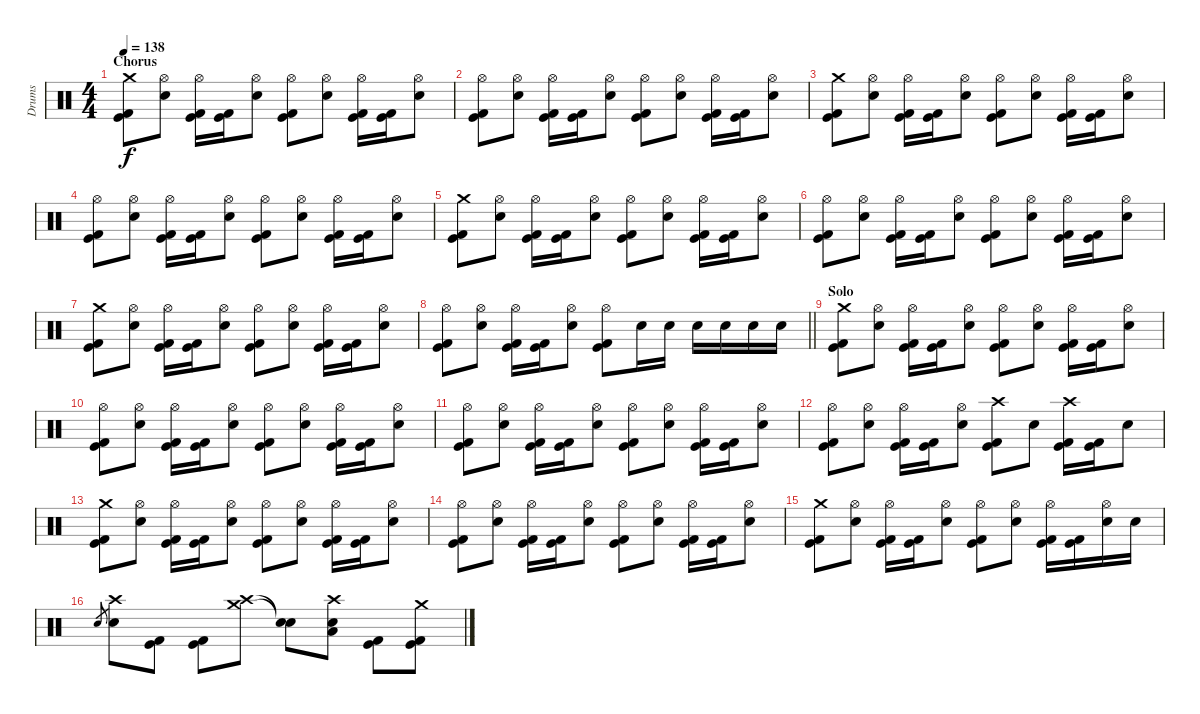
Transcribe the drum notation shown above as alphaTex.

\track ("Drums" "Drums") {instrument percussion}
\staff {score}
\articulation defaults
\ts (4 4)
\section ("" "Chorus")
\tempo 138
\clef neutral
\ks c
("Crash medium (hit)" "Kick (hit)" "Kick (hit) 2").8{dy f} ("Hi-Hat (open)" "Electric Snare (hit)").8 ("Hi-Hat (open)" "Kick (hit)" "Kick (hit) 2").16 ("Kick (hit)" "Kick (hit) 2").16 ("Hi-Hat (open)" "Electric Snare (hit)").8 ("Hi-Hat (open)" "Kick (hit)" "Kick (hit) 2").8 ("Hi-Hat (open)" "Electric Snare (hit)").8 ("Hi-Hat (open)" "Kick (hit)" "Kick (hit) 2").16 ("Kick (hit)" "Kick (hit) 2").16 ("Hi-Hat (open)" "Electric Snare (hit)").8 |
("Hi-Hat (open)" "Kick (hit)" "Kick (hit) 2").8 ("Hi-Hat (open)" "Electric Snare (hit)").8 ("Hi-Hat (open)" "Kick (hit)" "Kick (hit) 2").16 ("Kick (hit)" "Kick (hit) 2").16 ("Hi-Hat (open)" "Electric Snare (hit)").8 ("Hi-Hat (open)" "Kick (hit)" "Kick (hit) 2").8 ("Hi-Hat (open)" "Electric Snare (hit)").8 ("Hi-Hat (open)" "Kick (hit)" "Kick (hit) 2").16 ("Kick (hit)" "Kick (hit) 2").16 ("Hi-Hat (open)" "Electric Snare (hit)").8 |
("Crash medium (hit)" "Kick (hit)" "Kick (hit) 2").8 ("Hi-Hat (open)" "Electric Snare (hit)").8 ("Hi-Hat (open)" "Kick (hit)" "Kick (hit) 2").16 ("Kick (hit)" "Kick (hit) 2").16 ("Hi-Hat (open)" "Electric Snare (hit)").8 ("Hi-Hat (open)" "Kick (hit)" "Kick (hit) 2").8 ("Hi-Hat (open)" "Electric Snare (hit)").8 ("Hi-Hat (open)" "Kick (hit)" "Kick (hit) 2").16 ("Kick (hit)" "Kick (hit) 2").16 ("Hi-Hat (open)" "Electric Snare (hit)").8 |
("Hi-Hat (open)" "Kick (hit)" "Kick (hit) 2").8 ("Hi-Hat (open)" "Electric Snare (hit)").8 ("Hi-Hat (open)" "Kick (hit)" "Kick (hit) 2").16 ("Kick (hit)" "Kick (hit) 2").16 ("Hi-Hat (open)" "Electric Snare (hit)").8 ("Hi-Hat (open)" "Kick (hit)" "Kick (hit) 2").8 ("Hi-Hat (open)" "Electric Snare (hit)").8 ("Hi-Hat (open)" "Kick (hit)" "Kick (hit) 2").16 ("Kick (hit)" "Kick (hit) 2").16 ("Hi-Hat (open)" "Electric Snare (hit)").8 |
("Crash medium (hit)" "Kick (hit)" "Kick (hit) 2").8 ("Hi-Hat (open)" "Electric Snare (hit)").8 ("Hi-Hat (open)" "Kick (hit)" "Kick (hit) 2").16 ("Kick (hit)" "Kick (hit) 2").16 ("Hi-Hat (open)" "Electric Snare (hit)").8 ("Hi-Hat (open)" "Kick (hit)" "Kick (hit) 2").8 ("Hi-Hat (open)" "Electric Snare (hit)").8 ("Hi-Hat (open)" "Kick (hit)" "Kick (hit) 2").16 ("Kick (hit)" "Kick (hit) 2").16 ("Hi-Hat (open)" "Electric Snare (hit)").8 |
("Hi-Hat (open)" "Kick (hit)" "Kick (hit) 2").8 ("Hi-Hat (open)" "Electric Snare (hit)").8 ("Hi-Hat (open)" "Kick (hit)" "Kick (hit) 2").16 ("Kick (hit)" "Kick (hit) 2").16 ("Hi-Hat (open)" "Electric Snare (hit)").8 ("Hi-Hat (open)" "Kick (hit)" "Kick (hit) 2").8 ("Hi-Hat (open)" "Electric Snare (hit)").8 ("Hi-Hat (open)" "Kick (hit)" "Kick (hit) 2").16 ("Kick (hit)" "Kick (hit) 2").16 ("Hi-Hat (open)" "Electric Snare (hit)").8 |
("Crash medium (hit)" "Kick (hit)" "Kick (hit) 2").8 ("Hi-Hat (open)" "Electric Snare (hit)").8 ("Hi-Hat (open)" "Kick (hit)" "Kick (hit) 2").16 ("Kick (hit)" "Kick (hit) 2").16 ("Hi-Hat (open)" "Electric Snare (hit)").8 ("Hi-Hat (open)" "Kick (hit)" "Kick (hit) 2").8 ("Hi-Hat (open)" "Electric Snare (hit)").8 ("Hi-Hat (open)" "Kick (hit)" "Kick (hit) 2").16 ("Kick (hit)" "Kick (hit) 2").16 ("Hi-Hat (open)" "Electric Snare (hit)").8 |
\barLineRight lightlight
("Hi-Hat (open)" "Kick (hit)" "Kick (hit) 2").8 ("Hi-Hat (open)" "Electric Snare (hit)").8 ("Hi-Hat (open)" "Kick (hit)" "Kick (hit) 2").16 ("Kick (hit)" "Kick (hit) 2").16 ("Hi-Hat (open)" "Electric Snare (hit)").8 ("Hi-Hat (open)" "Kick (hit)" "Kick (hit) 2").8 "Electric Snare (hit)".16 "Electric Snare (hit)".16 "Electric Snare (hit)".16 "Electric Snare (hit)".16 "Electric Snare (hit)".16 "Electric Snare (hit)".16 |
\section ("" "Solo")
("Crash medium (hit)" "Kick (hit)" "Kick (hit) 2").8 ("Hi-Hat (open)" "Electric Snare (hit)").8 ("Hi-Hat (open)" "Kick (hit)" "Kick (hit) 2").16 ("Kick (hit)" "Kick (hit) 2").16 ("Hi-Hat (open)" "Electric Snare (hit)").8 ("Hi-Hat (open)" "Kick (hit)" "Kick (hit) 2").8 ("Hi-Hat (open)" "Electric Snare (hit)").8 ("Hi-Hat (open)" "Kick (hit)" "Kick (hit) 2").16 ("Kick (hit)" "Kick (hit) 2").16 ("Hi-Hat (open)" "Electric Snare (hit)").8 |
("Hi-Hat (open)" "Kick (hit)" "Kick (hit) 2").8 ("Hi-Hat (open)" "Electric Snare (hit)").8 ("Hi-Hat (open)" "Kick (hit)" "Kick (hit) 2").16 ("Kick (hit)" "Kick (hit) 2").16 ("Hi-Hat (open)" "Electric Snare (hit)").8 ("Hi-Hat (open)" "Kick (hit)" "Kick (hit) 2").8 ("Hi-Hat (open)" "Electric Snare (hit)").8 ("Hi-Hat (open)" "Kick (hit)" "Kick (hit) 2").16 ("Kick (hit)" "Kick (hit) 2").16 ("Hi-Hat (open)" "Electric Snare (hit)").8 |
("Hi-Hat (open)" "Kick (hit)" "Kick (hit) 2").8 ("Hi-Hat (open)" "Electric Snare (hit)").8 ("Hi-Hat (open)" "Kick (hit)" "Kick (hit) 2").16 ("Kick (hit)" "Kick (hit) 2").16 ("Hi-Hat (open)" "Electric Snare (hit)").8 ("Hi-Hat (open)" "Kick (hit)" "Kick (hit) 2").8 ("Hi-Hat (open)" "Electric Snare (hit)").8 ("Hi-Hat (open)" "Kick (hit)" "Kick (hit) 2").16 ("Kick (hit)" "Kick (hit) 2").16 ("Hi-Hat (open)" "Electric Snare (hit)").8 |
("Hi-Hat (open)" "Kick (hit)" "Kick (hit) 2").8 ("Hi-Hat (open)" "Electric Snare (hit)").8 ("Hi-Hat (open)" "Kick (hit)" "Kick (hit) 2").16 ("Kick (hit)" "Kick (hit) 2").16 ("Hi-Hat (open)" "Electric Snare (hit)").8 ("Crash high (hit)" "Kick (hit)" "Kick (hit) 2").8 "Electric Snare (hit)".8 ("Crash high (hit)" "Kick (hit)" "Kick (hit) 2").16 ("Kick (hit)" "Kick (hit) 2").16 "Electric Snare (hit)".8 |
("Crash medium (hit)" "Kick (hit)" "Kick (hit) 2").8 ("Hi-Hat (open)" "Electric Snare (hit)").8 ("Hi-Hat (open)" "Kick (hit)" "Kick (hit) 2").16 ("Kick (hit)" "Kick (hit) 2").16 ("Hi-Hat (open)" "Electric Snare (hit)").8 ("Hi-Hat (open)" "Kick (hit)" "Kick (hit) 2").8 ("Hi-Hat (open)" "Electric Snare (hit)").8 ("Hi-Hat (open)" "Kick (hit)" "Kick (hit) 2").16 ("Kick (hit)" "Kick (hit) 2").16 ("Hi-Hat (open)" "Electric Snare (hit)").8 |
("Hi-Hat (open)" "Kick (hit)" "Kick (hit) 2").8 ("Hi-Hat (open)" "Electric Snare (hit)").8 ("Hi-Hat (open)" "Kick (hit)" "Kick (hit) 2").16 ("Kick (hit)" "Kick (hit) 2").16 ("Hi-Hat (open)" "Electric Snare (hit)").8 ("Hi-Hat (open)" "Kick (hit)" "Kick (hit) 2").8 ("Hi-Hat (open)" "Electric Snare (hit)").8 ("Hi-Hat (open)" "Kick (hit)" "Kick (hit) 2").16 ("Kick (hit)" "Kick (hit) 2").16 ("Hi-Hat (open)" "Electric Snare (hit)").8 |
("Crash medium (hit)" "Kick (hit)" "Kick (hit) 2").8 ("Hi-Hat (open)" "Electric Snare (hit)").8 ("Hi-Hat (open)" "Kick (hit)" "Kick (hit) 2").16 ("Kick (hit)" "Kick (hit) 2").16 ("Hi-Hat (open)" "Electric Snare (hit)").8 ("Hi-Hat (open)" "Kick (hit)" "Kick (hit) 2").8 ("Hi-Hat (open)" "Electric Snare (hit)").8 ("Hi-Hat (open)" "Kick (hit)" "Kick (hit) 2").16 ("Kick (hit)" "Kick (hit) 2").16 ("Hi-Hat (open)" "Electric Snare (hit)").16 "Electric Snare (hit)".16 |
"Electric Snare (hit)".8{gr} ("Crash high (hit)" "Electric Snare (hit)").8 ("Kick (hit)" "Kick (hit) 2").8 ("Kick (hit)" "Kick (hit) 2").8 ("Crash medium (hit)" "Crash high (hit)").8 ("Snare (hit)"{t} "Snare (hit)"{t}).8 ("Crash high (hit)" "Electric Snare (hit)" "Low Floor Tom (hit)").8 ("Kick (hit)" "Kick (hit) 2").8 ("Crash medium (hit)" "Kick (hit)" "Kick (hit) 2").8
